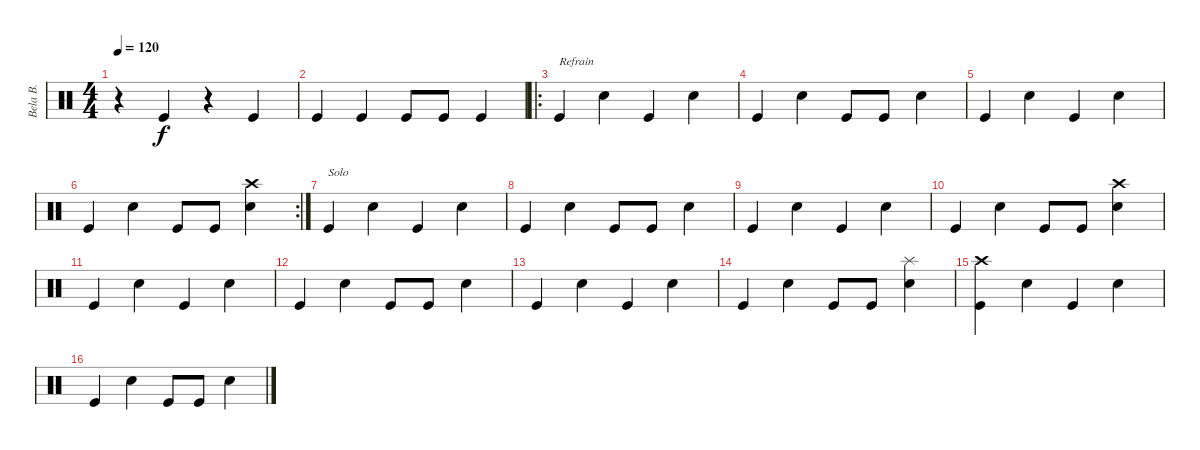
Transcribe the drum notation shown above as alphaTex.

\track ("Bela B." "Bela B.") {instrument percussion}
\staff {score}
\articulation defaults
\ts (4 4)
\tempo 120
\clef neutral
\ks c
r.4{dy f} "Kick (hit)".4 r.4 "Kick (hit)".4 |
"Kick (hit)".4 "Kick (hit)".4 "Kick (hit)".8 "Kick (hit)".8 "Kick (hit)".4 |
\ro "Kick (hit)".4{txt "Refrain"} "Electric Snare (hit)".4 "Kick (hit)".4 "Electric Snare (hit)".4
|
"Kick (hit)".4 "Electric Snare (hit)".4 "Kick (hit)".8 "Kick (hit)".8 "Electric Snare (hit)".4 |
"Kick (hit)".4 "Electric Snare (hit)".4 "Kick (hit)".4 "Electric Snare (hit)".4 |
\rc 2 "Kick (hit)".4 "Electric Snare (hit)".4 "Kick (hit)".8 "Kick (hit)".8
("Electric Snare (hit)" "Crash high (hit)").4 |
"Kick (hit)".4{txt "Solo"} "Electric Snare (hit)".4 "Kick (hit)".4 "Electric Snare (hit)".4 |
"Kick (hit)".4 "Electric Snare (hit)".4 "Kick (hit)".8 "Kick (hit)".8 "Electric Snare (hit)".4 |
"Kick (hit)".4 "Electric Snare (hit)".4 "Kick (hit)".4 "Electric Snare (hit)".4 |
"Kick (hit)".4 "Electric Snare (hit)".4 "Kick (hit)".8 "Kick (hit)".8 ("Electric Snare (hit)" "Crash high (hit)").4 |
"Kick (hit)".4 "Electric Snare (hit)".4 "Kick (hit)".4 "Electric Snare (hit)".4 |
"Kick (hit)".4 "Electric Snare (hit)".4 "Kick (hit)".8 "Kick (hit)".8 "Electric Snare (hit)".4 |
"Kick (hit)".4 "Electric Snare (hit)".4 "Kick (hit)".4 "Electric Snare (hit)".4 |
"Kick (hit)".4 "Electric Snare (hit)".4 "Kick (hit)".8 "Kick (hit)".8 ("Electric Snare (hit)" "Splash (hit)").4 |
("Kick (hit)" "Crash high (hit)").4 "Electric Snare (hit)".4 "Kick (hit)".4 "Electric Snare (hit)".4 |
"Kick (hit)".4 "Electric Snare (hit)".4 "Kick (hit)".8 "Kick (hit)".8 "Electric Snare (hit)".4
